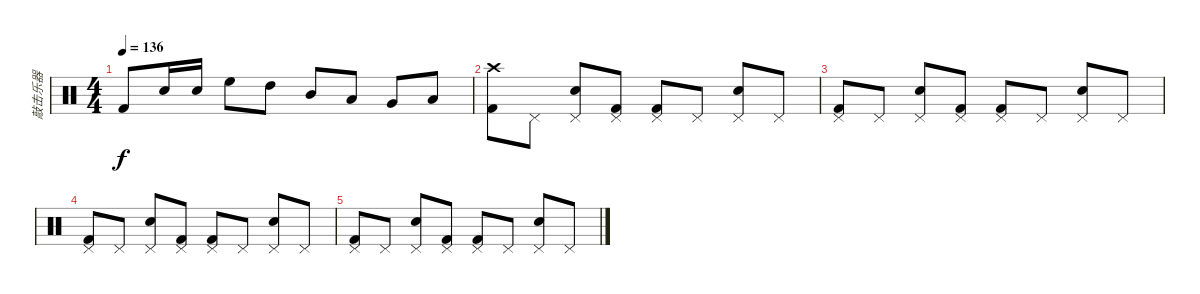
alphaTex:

\track ("敲击乐器" "敲击乐器") {instrument percussion}
\staff {score}
\articulation defaults
\ts (4 4)
\tempo 136
\clef neutral
\ks c "Kick (hit) 2".8{dy f} "Snare (hit) 2".16 "Snare (hit) 2".16 "High Floor Tom (hit)".8 "High Tom (hit)".8 "Mid Tom (hit)".8 "Low Tom (hit)".8 "Very Low Tom (hit)".8 "Low Floor Tom (hit)".8
|
("Crash high (hit)" "Kick (hit) 2").8 "Pedal Hi-Hat (hit)".8 ("Pedal Hi-Hat (hit)" "Snare (hit) 2").8 ("Pedal Hi-Hat (hit)" "Kick (hit) 2").8 ("Pedal Hi-Hat (hit)" "Kick (hit) 2").8 "Pedal Hi-Hat (hit)".8 ("Pedal Hi-Hat (hit)" "Snare (hit) 2").8 "Pedal Hi-Hat (hit)".8 |
("Pedal Hi-Hat (hit)" "Kick (hit) 2").8 "Pedal Hi-Hat (hit)".8 ("Pedal Hi-Hat (hit)" "Snare (hit) 2").8 ("Pedal Hi-Hat (hit)" "Kick (hit) 2").8 ("Pedal Hi-Hat (hit)" "Kick (hit) 2").8 "Pedal Hi-Hat (hit)".8 ("Pedal Hi-Hat (hit)" "Snare (hit) 2").8 "Pedal Hi-Hat (hit)".8 |
("Pedal Hi-Hat (hit)" "Kick (hit) 2").8 "Pedal Hi-Hat (hit)".8 ("Pedal Hi-Hat (hit)" "Snare (hit) 2").8 ("Pedal Hi-Hat (hit)" "Kick (hit) 2").8 ("Pedal Hi-Hat (hit)" "Kick (hit) 2").8 "Pedal Hi-Hat (hit)".8 ("Pedal Hi-Hat (hit)" "Snare (hit) 2").8 "Pedal Hi-Hat (hit)".8 |
("Pedal Hi-Hat (hit)" "Kick (hit) 2").8 "Pedal Hi-Hat (hit)".8 ("Pedal Hi-Hat (hit)" "Snare (hit) 2").8 ("Pedal Hi-Hat (hit)" "Kick (hit) 2").8 ("Pedal Hi-Hat (hit)" "Kick (hit) 2").8 "Pedal Hi-Hat (hit)".8 ("Pedal Hi-Hat (hit)" "Snare (hit) 2").8 "Pedal Hi-Hat (hit)".8
